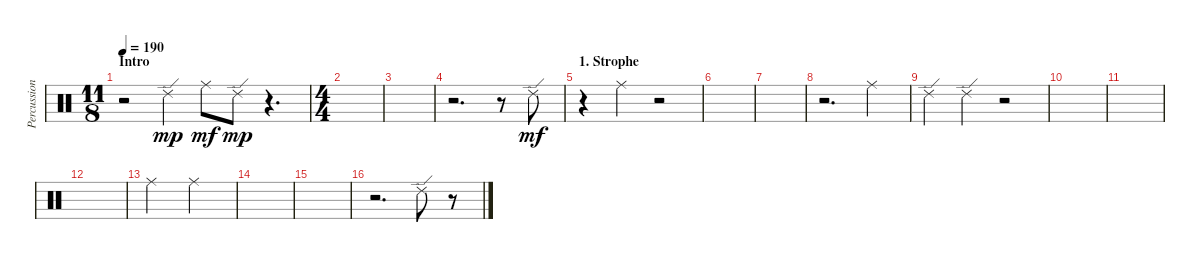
\track ("Percussion" "Percussion") {instrument percussion}
\staff {score}
\articulation defaults
\ts (11 8)
\section ("" "Intro")
\tempo 190
\clef neutral
\ks c
r.2{dy mp} "Ride (edge) 2".4 "Ride (middle)".8{dy mf} "Ride (edge) 2".8{dy mp} r.4{d} |
\ts (4 4)
|
|
r.2{d} r.8 "Ride (edge) 2".8{dy mf} |
\section ("" "1. Strophe")
r.4 "Ride (middle)".4 r.2 |
|
|
r.2{d} "Ride (middle)".4 |
"Ride (edge) 2".4 "Ride (edge) 2".4 r.2 |
|
|
|
"Ride (middle)".2 "Ride (middle)".2 |
|
|
r.2{d} "Ride (edge) 2".8 r.8
